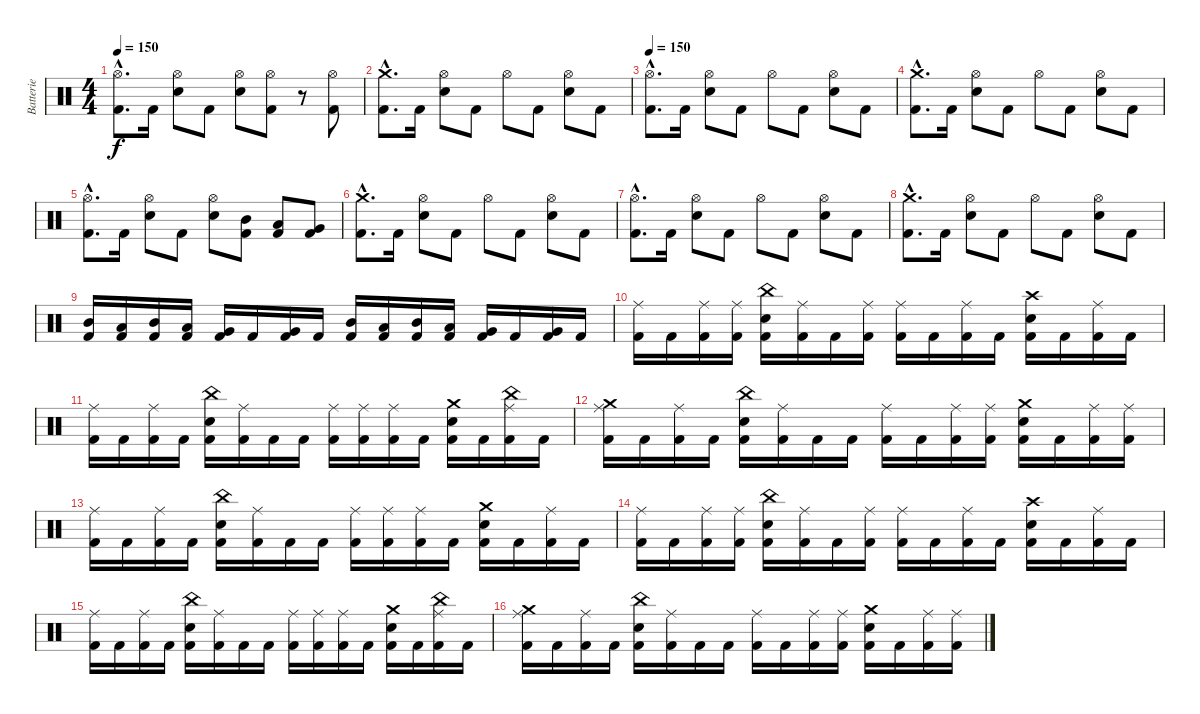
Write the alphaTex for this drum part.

\track ("Batterie" "Batterie") {instrument percussion}
\staff {score}
\articulation defaults
\ts (4 4)
\tempo 150
\clef neutral
\ks c
("Hi-Hat (open)"{hac} "Kick (hit) 2"{hac}).8{d dy f} "Kick (hit) 2".16 ("Hi-Hat (open)" "Electric Snare (hit)").8 "Kick (hit) 2".8 ("Hi-Hat (open)" "Electric Snare (hit)").8 ("Hi-Hat (open)" "Kick (hit) 2").8 r.8 ("Hi-Hat (open)" "Kick (hit) 2").8 |
("Crash medium (hit)"{hac} "Kick (hit) 2"{hac}).8{d} "Kick (hit) 2".16 ("Hi-Hat (open)" "Electric Snare (hit)").8 "Kick (hit) 2".8 "Hi-Hat (open)".8 "Kick (hit) 2".8 ("Hi-Hat (open)" "Electric Snare (hit)").8 "Kick (hit) 2".8 |
\tempo 150
("Hi-Hat (open)"{hac} "Kick (hit) 2"{hac}).8{d} "Kick (hit) 2".16 ("Hi-Hat (open)" "Electric Snare (hit)").8 "Kick (hit) 2".8 "Hi-Hat (open)".8 "Kick (hit) 2".8 ("Hi-Hat (open)" "Electric Snare (hit)").8 "Kick (hit) 2".8 |
("Crash medium (hit)"{hac} "Kick (hit) 2"{hac}).8{d} "Kick (hit) 2".16 ("Hi-Hat (open)" "Electric Snare (hit)").8 "Kick (hit) 2".8 "Hi-Hat (open)".8 "Kick (hit) 2".8 ("Hi-Hat (open)" "Electric Snare (hit)").8 "Kick (hit) 2".8 |
("Hi-Hat (open)"{hac} "Kick (hit) 2"{hac}).8{d} "Kick (hit) 2".16 ("Hi-Hat (open)" "Electric Snare (hit)").8 "Kick (hit) 2".8 ("Hi-Hat (open)" "Electric Snare (hit)").8 ("Mid Tom (hit)" "Kick (hit) 2").8 ("Low Tom (hit)" "Kick (hit) 2").8 ("Very Low Tom (hit)" "Kick (hit) 2").8 |
("Crash medium (hit)"{hac} "Kick (hit) 2"{hac}).8{d} "Kick (hit) 2".16 ("Hi-Hat (open)" "Electric Snare (hit)").8 "Kick (hit) 2".8 "Hi-Hat (open)".8 "Kick (hit) 2".8 ("Hi-Hat (open)" "Electric Snare (hit)").8 "Kick (hit) 2".8 |
("Hi-Hat (open)"{hac} "Kick (hit) 2"{hac}).8{d} "Kick (hit) 2".16 ("Hi-Hat (open)" "Electric Snare (hit)").8 "Kick (hit) 2".8 "Hi-Hat (open)".8 "Kick (hit) 2".8 ("Hi-Hat (open)" "Electric Snare (hit)").8 "Kick (hit) 2".8 |
("Crash medium (hit)"{hac} "Kick (hit) 2"{hac}).8{d} "Kick (hit) 2".16 ("Hi-Hat (open)" "Electric Snare (hit)").8 "Kick (hit) 2".8 "Hi-Hat (open)".8 "Kick (hit) 2".8 ("Hi-Hat (open)" "Electric Snare (hit)").8 "Kick (hit) 2".8 |
("Mid Tom (hit)" "Kick (hit) 2").16 ("Low Tom (hit)" "Kick (hit) 2").16 ("Mid Tom (hit)" "Kick (hit) 2").16 ("Low Tom (hit)" "Kick (hit) 2").16 ("Very Low Tom (hit)" "Kick (hit) 2").16 "Kick (hit) 2".16 ("Very Low Tom (hit)" "Kick (hit) 2").16 "Kick (hit) 2".16 ("Mid Tom (hit)" "Kick (hit) 2").16 ("Low Tom (hit)" "Kick (hit) 2").16 ("Mid Tom (hit)" "Kick (hit) 2").16 ("Low Tom (hit)" "Kick (hit) 2").16 ("Very Low Tom (hit)" "Kick (hit) 2").16 "Kick (hit) 2".16 ("Very Low Tom (hit)" "Kick (hit) 2").16 "Kick (hit) 2".16 |
("Ride (middle)" "Kick (hit) 2").16 "Kick (hit) 2".16 ("Ride (middle)" "Kick (hit) 2").16 ("Ride (middle)" "Kick (hit) 2").16 ("China (hit)" "Electric Snare (hit)" "Kick (hit) 2").16 ("Ride (middle)" "Kick (hit) 2").16 "Kick (hit) 2".16 ("Ride (middle)" "Kick (hit) 2").16 ("Ride (middle)" "Kick (hit) 2").16 "Kick (hit) 2".16 ("Ride (middle)" "Kick (hit) 2").16 "Kick (hit) 2".16 ("Crash high (hit)" "Electric Snare (hit)" "Kick (hit) 2").16 "Kick (hit) 2".16 ("Ride (middle)" "Kick (hit) 2").16 "Kick (hit) 2".16 |
("Ride (middle)" "Kick (hit) 2").16 "Kick (hit) 2".16 ("Ride (middle)" "Kick (hit) 2").16 "Kick (hit) 2".16 ("China (hit)" "Electric Snare (hit)" "Kick (hit) 2").16 ("Ride (middle)" "Kick (hit) 2").16 "Kick (hit) 2".16 "Kick (hit) 2".16 ("Ride (middle)" "Kick (hit) 2").16 ("Ride (middle)" "Kick (hit) 2").16 ("Ride (middle)" "Kick (hit) 2").16 "Kick (hit) 2".16 ("Crash medium (hit)" "Electric Snare (hit)" "Kick (hit) 2").16 "Kick (hit) 2".16 ("China (hit)" "Ride (middle)" "Kick (hit) 2").16 "Kick (hit) 2".16 |
("Crash medium (hit)" "Ride (middle)" "Kick (hit) 2").16 "Kick (hit) 2".16 ("Ride (middle)" "Kick (hit) 2").16 "Kick (hit) 2".16 ("China (hit)" "Electric Snare (hit)" "Kick (hit) 2").16 ("Ride (middle)" "Kick (hit) 2").16 "Kick (hit) 2".16 "Kick (hit) 2".16 ("Ride (middle)" "Kick (hit) 2").16 "Kick (hit) 2".16 ("Ride (middle)" "Kick (hit) 2").16 ("Ride (middle)" "Kick (hit) 2").16 ("Crash medium (hit)" "Electric Snare (hit)" "Kick (hit) 2").16 "Kick (hit) 2".16 ("Ride (middle)" "Kick (hit) 2").16 ("Ride (middle)" "Kick (hit) 2").16 |
("Ride (middle)" "Kick (hit) 2").16 "Kick (hit) 2".16 ("Ride (middle)" "Kick (hit) 2").16 "Kick (hit) 2".16 ("China (hit)" "Electric Snare (hit)" "Kick (hit) 2").16 ("Ride (middle)" "Kick (hit) 2").16 "Kick (hit) 2".16 "Kick (hit) 2".16 ("Ride (middle)" "Kick (hit) 2").16 ("Ride (middle)" "Kick (hit) 2").16 ("Ride (middle)" "Kick (hit) 2").16 "Kick (hit) 2".16 ("Crash medium (hit)" "Electric Snare (hit)" "Kick (hit) 2").16 "Kick (hit) 2".16 ("Ride (middle)" "Kick (hit) 2").16 "Kick (hit) 2".16 |
("Ride (middle)" "Kick (hit) 2").16 "Kick (hit) 2".16 ("Ride (middle)" "Kick (hit) 2").16 ("Ride (middle)" "Kick (hit) 2").16 ("China (hit)" "Electric Snare (hit)" "Kick (hit) 2").16 ("Ride (middle)" "Kick (hit) 2").16 "Kick (hit) 2".16 ("Ride (middle)" "Kick (hit) 2").16 ("Ride (middle)" "Kick (hit) 2").16 "Kick (hit) 2".16 ("Ride (middle)" "Kick (hit) 2").16 "Kick (hit) 2".16 ("Crash high (hit)" "Electric Snare (hit)" "Kick (hit) 2").16 "Kick (hit) 2".16 ("Ride (middle)" "Kick (hit) 2").16 "Kick (hit) 2".16 |
("Ride (middle)" "Kick (hit) 2").16 "Kick (hit) 2".16 ("Ride (middle)" "Kick (hit) 2").16 "Kick (hit) 2".16 ("China (hit)" "Electric Snare (hit)" "Kick (hit) 2").16 ("Ride (middle)" "Kick (hit) 2").16 "Kick (hit) 2".16 "Kick (hit) 2".16 ("Ride (middle)" "Kick (hit) 2").16 ("Ride (middle)" "Kick (hit) 2").16 ("Ride (middle)" "Kick (hit) 2").16 "Kick (hit) 2".16 ("Crash medium (hit)" "Electric Snare (hit)" "Kick (hit) 2").16 "Kick (hit) 2".16 ("China (hit)" "Ride (middle)" "Kick (hit) 2").16 "Kick (hit) 2".16 |
("Crash medium (hit)" "Ride (middle)" "Kick (hit) 2").16 "Kick (hit) 2".16 ("Ride (middle)" "Kick (hit) 2").16 "Kick (hit) 2".16 ("China (hit)" "Electric Snare (hit)" "Kick (hit) 2").16 ("Ride (middle)" "Kick (hit) 2").16 "Kick (hit) 2".16 "Kick (hit) 2".16 ("Ride (middle)" "Kick (hit) 2").16 "Kick (hit) 2".16 ("Ride (middle)" "Kick (hit) 2").16 ("Ride (middle)" "Kick (hit) 2").16 ("Crash medium (hit)" "Electric Snare (hit)" "Kick (hit) 2").16 "Kick (hit) 2".16 ("Ride (middle)" "Kick (hit) 2").16 ("Ride (middle)" "Kick (hit) 2").16
